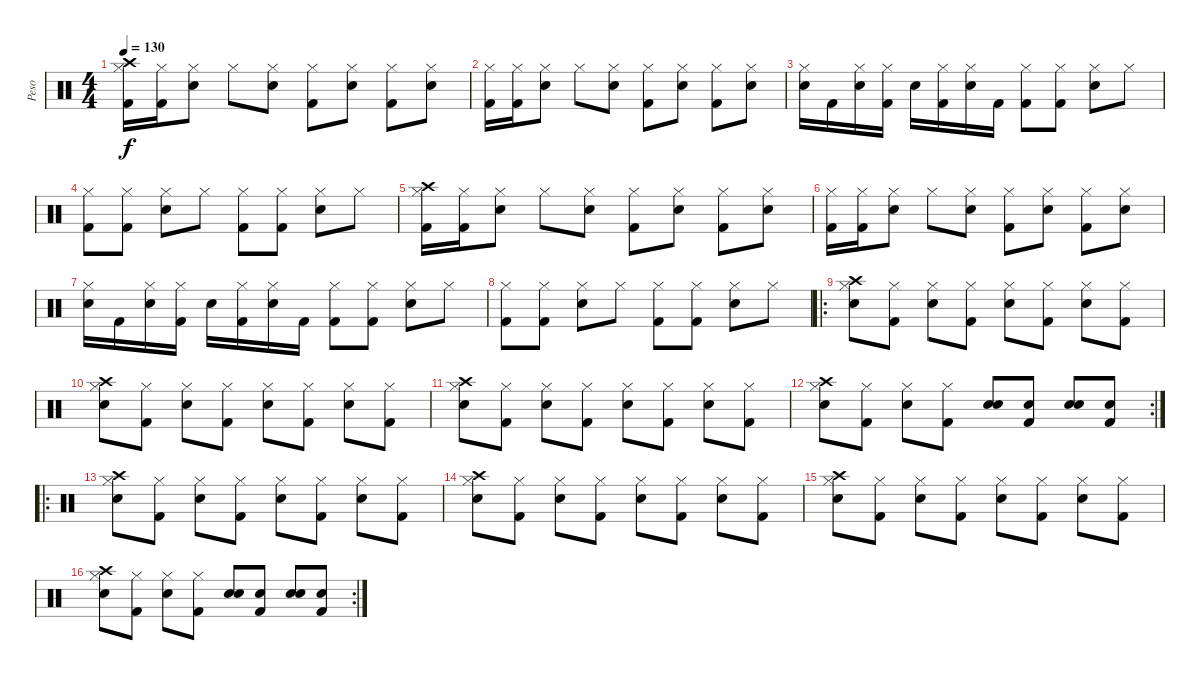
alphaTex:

\track ("Peso" "Peso") {instrument percussion}
\staff {score}
\articulation defaults
\ts (4 4)
\tempo 130
\clef neutral
\ks c
("Crash high (hit)" "Hi-Hat (closed)" "Kick (hit) 2").16{dy f} ("Hi-Hat (closed)" "Kick (hit) 2").16 ("Hi-Hat (closed)" "Snare (hit) 2").8 "Hi-Hat (closed)".8 ("Hi-Hat (closed)" "Snare (hit) 2").8 ("Hi-Hat (closed)" "Kick (hit) 2").8 ("Hi-Hat (closed)" "Snare (hit) 2").8 ("Hi-Hat (closed)" "Kick (hit) 2").8 ("Hi-Hat (closed)" "Snare (hit) 2").8 |
("Hi-Hat (closed)" "Kick (hit) 2").16 ("Hi-Hat (closed)" "Kick (hit) 2").16 ("Hi-Hat (closed)" "Snare (hit) 2").8 "Hi-Hat (closed)".8 ("Hi-Hat (closed)" "Snare (hit) 2").8 ("Hi-Hat (closed)" "Kick (hit) 2").8 ("Hi-Hat (closed)" "Snare (hit) 2").8 ("Hi-Hat (closed)" "Kick (hit) 2").8 ("Hi-Hat (closed)" "Snare (hit) 2").8 |
("Hi-Hat (closed)" "Snare (hit) 2").16 "Kick (hit) 2".16 ("Hi-Hat (closed)" "Snare (hit) 2").16 ("Hi-Hat (closed)" "Kick (hit) 2").16 "Snare (hit) 2".16 ("Hi-Hat (closed)" "Kick (hit) 2").16 ("Hi-Hat (closed)" "Snare (hit) 2").16 "Kick (hit) 2".16 ("Hi-Hat (closed)" "Kick (hit) 2").8 ("Hi-Hat (closed)" "Kick (hit) 2").8 ("Hi-Hat (closed)" "Snare (hit) 2").8 "Hi-Hat (closed)".8 |
("Hi-Hat (closed)" "Kick (hit) 2").8 ("Hi-Hat (closed)" "Kick (hit) 2").8 ("Hi-Hat (closed)" "Snare (hit) 2").8 "Hi-Hat (closed)".8 ("Hi-Hat (closed)" "Kick (hit) 2").8 ("Hi-Hat (closed)" "Kick (hit) 2").8 ("Hi-Hat (closed)" "Snare (hit) 2").8 "Hi-Hat (closed)".8 |
("Crash high (hit)" "Hi-Hat (closed)" "Kick (hit) 2").16 ("Hi-Hat (closed)" "Kick (hit) 2").16 ("Hi-Hat (closed)" "Snare (hit) 2").8 "Hi-Hat (closed)".8 ("Hi-Hat (closed)" "Snare (hit) 2").8 ("Hi-Hat (closed)" "Kick (hit) 2").8 ("Hi-Hat (closed)" "Snare (hit) 2").8 ("Hi-Hat (closed)" "Kick (hit) 2").8 ("Hi-Hat (closed)" "Snare (hit) 2").8 |
("Hi-Hat (closed)" "Kick (hit) 2").16 ("Hi-Hat (closed)" "Kick (hit) 2").16 ("Hi-Hat (closed)" "Snare (hit) 2").8 "Hi-Hat (closed)".8 ("Hi-Hat (closed)" "Snare (hit) 2").8 ("Hi-Hat (closed)" "Kick (hit) 2").8 ("Hi-Hat (closed)" "Snare (hit) 2").8 ("Hi-Hat (closed)" "Kick (hit) 2").8 ("Hi-Hat (closed)" "Snare (hit) 2").8 |
("Hi-Hat (closed)" "Snare (hit) 2").16 "Kick (hit) 2".16 ("Hi-Hat (closed)" "Snare (hit) 2").16 ("Hi-Hat (closed)" "Kick (hit) 2").16 "Snare (hit) 2".16 ("Hi-Hat (closed)" "Kick (hit) 2").16 ("Hi-Hat (closed)" "Snare (hit) 2").16 "Kick (hit) 2".16 ("Hi-Hat (closed)" "Kick (hit) 2").8 ("Hi-Hat (closed)" "Kick (hit) 2").8 ("Hi-Hat (closed)" "Snare (hit) 2").8 "Hi-Hat (closed)".8 |
("Hi-Hat (closed)" "Kick (hit) 2").8 ("Hi-Hat (closed)" "Kick (hit) 2").8 ("Hi-Hat (closed)" "Snare (hit) 2").8 "Hi-Hat (closed)".8 ("Hi-Hat (closed)" "Kick (hit) 2").8 ("Hi-Hat (closed)" "Kick (hit) 2").8 ("Hi-Hat (closed)" "Snare (hit) 2").8 "Hi-Hat (closed)".8 |
\ro
("Crash high (hit)" "Hi-Hat (closed)" "Snare (hit) 2").8 ("Hi-Hat (closed)" "Kick (hit) 2").8 ("Hi-Hat (closed)" "Snare (hit) 2").8 ("Hi-Hat (closed)" "Kick (hit) 2").8 ("Hi-Hat (closed)" "Snare (hit) 2").8 ("Hi-Hat (closed)" "Kick (hit) 2").8 ("Hi-Hat (closed)" "Snare (hit) 2").8 ("Hi-Hat (closed)" "Kick (hit) 2").8 |
("Crash high (hit)" "Hi-Hat (closed)" "Snare (hit) 2").8 ("Hi-Hat (closed)" "Kick (hit) 2").8 ("Hi-Hat (closed)" "Snare (hit) 2").8 ("Hi-Hat (closed)" "Kick (hit) 2").8 ("Hi-Hat (closed)" "Snare (hit) 2").8 ("Hi-Hat (closed)" "Kick (hit) 2").8 ("Hi-Hat (closed)" "Snare (hit) 2").8 ("Hi-Hat (closed)" "Kick (hit) 2").8 |
("Crash high (hit)" "Hi-Hat (closed)" "Snare (hit) 2").8 ("Hi-Hat (closed)" "Kick (hit) 2").8 ("Hi-Hat (closed)" "Snare (hit) 2").8 ("Hi-Hat (closed)" "Kick (hit) 2").8 ("Hi-Hat (closed)" "Snare (hit) 2").8 ("Hi-Hat (closed)" "Kick (hit) 2").8 ("Hi-Hat (closed)" "Snare (hit) 2").8 ("Hi-Hat (closed)" "Kick (hit) 2").8 |
\rc 2
("Crash high (hit)" "Hi-Hat (closed)" "Snare (hit) 2").8 ("Hi-Hat (closed)" "Kick (hit) 2").8 ("Hi-Hat (closed)" "Snare (hit) 2").8 ("Hi-Hat (closed)" "Kick (hit) 2").8 ("Snare (hit) 2" "Snare (hit) 2").8 ("Snare (hit) 2" "Kick (hit) 2").8 ("Snare (hit) 2" "Snare (hit) 2").8 ("Snare (hit) 2" "Kick (hit) 2").8 |
\ro
("Crash high (hit)" "Hi-Hat (closed)" "Snare (hit) 2").8 ("Hi-Hat (closed)" "Kick (hit) 2").8 ("Hi-Hat (closed)" "Snare (hit) 2").8 ("Hi-Hat (closed)" "Kick (hit) 2").8 ("Hi-Hat (closed)" "Snare (hit) 2").8 ("Hi-Hat (closed)" "Kick (hit) 2").8 ("Hi-Hat (closed)" "Snare (hit) 2").8 ("Hi-Hat (closed)" "Kick (hit) 2").8 |
("Crash high (hit)" "Hi-Hat (closed)" "Snare (hit) 2").8 ("Hi-Hat (closed)" "Kick (hit) 2").8 ("Hi-Hat (closed)" "Snare (hit) 2").8 ("Hi-Hat (closed)" "Kick (hit) 2").8 ("Hi-Hat (closed)" "Snare (hit) 2").8 ("Hi-Hat (closed)" "Kick (hit) 2").8 ("Hi-Hat (closed)" "Snare (hit) 2").8 ("Hi-Hat (closed)" "Kick (hit) 2").8 |
("Crash high (hit)" "Hi-Hat (closed)" "Snare (hit) 2").8 ("Hi-Hat (closed)" "Kick (hit) 2").8 ("Hi-Hat (closed)" "Snare (hit) 2").8 ("Hi-Hat (closed)" "Kick (hit) 2").8 ("Hi-Hat (closed)" "Snare (hit) 2").8 ("Hi-Hat (closed)" "Kick (hit) 2").8 ("Hi-Hat (closed)" "Snare (hit) 2").8 ("Hi-Hat (closed)" "Kick (hit) 2").8 |
\rc 2
("Crash high (hit)" "Hi-Hat (closed)" "Snare (hit) 2").8 ("Hi-Hat (closed)" "Kick (hit) 2").8 ("Hi-Hat (closed)" "Snare (hit) 2").8 ("Hi-Hat (closed)" "Kick (hit) 2").8 ("Snare (hit) 2" "Snare (hit) 2").8 ("Snare (hit) 2" "Kick (hit) 2").8 ("Snare (hit) 2" "Snare (hit) 2").8 ("Snare (hit) 2" "Kick (hit) 2").8
